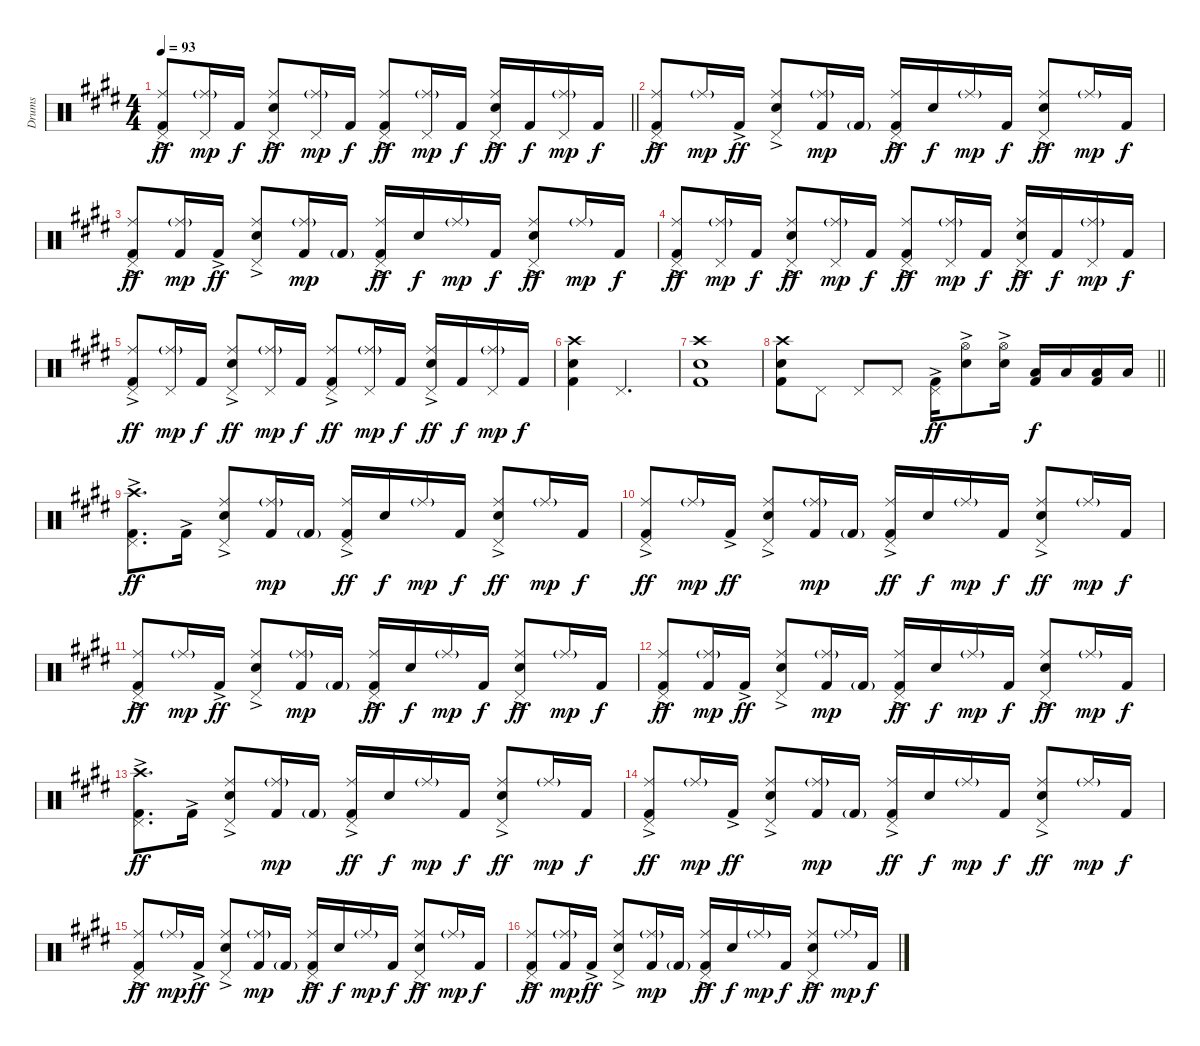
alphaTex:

\track ("Drums" "Drums") {instrument percussion}
\staff {score}
\articulation defaults
\ts (4 4)
\tempo 93
\clef neutral
\barLineRight lightlight
\ks e
("Pedal Hi-Hat (hit)" "Ride (middle)" "Kick (hit) 2"{ac}).8{dy ff} ("Pedal Hi-Hat (hit)" "Ride (middle)"{g}).16{dy mp} "Kick (hit) 2".16{dy f} ("Pedal Hi-Hat (hit)" "Ride (middle)" "Snare (hit) 2"{ac}).8{dy ff} ("Pedal Hi-Hat (hit)" "Ride (middle)"{g}).16{dy mp} "Kick (hit) 2".16{dy f} ("Pedal Hi-Hat (hit)" "Ride (middle)" "Kick (hit) 2"{ac}).8{dy ff} ("Pedal Hi-Hat (hit)" "Ride (middle)"{g}).16{dy mp} "Kick (hit) 2".16{dy f} ("Pedal Hi-Hat (hit)" "Ride (middle)" "Snare (hit) 2"{ac}).16{dy ff} "Kick (hit) 2".16{dy f} ("Pedal Hi-Hat (hit)" "Ride (middle)"{g}).16{dy mp} "Kick (hit) 2".16{dy f} |
("Pedal Hi-Hat (hit)" "Ride (middle)" "Kick (hit) 2"{ac}).8{dy ff} "Ride (middle)"{g}.16{dy mp} "Kick (hit) 2"{ac}.16{dy ff} ("Pedal Hi-Hat (hit)" "Ride (middle)" "Snare (hit) 2"{ac}).8 ("Ride (middle)"{g} "Kick (hit) 2").16{dy mp} "Kick (hit) 2"{g}.16 ("Pedal Hi-Hat (hit)" "Ride (middle)" "Kick (hit) 2"{ac}).16{dy ff} "Snare (hit) 2".16{dy f} "Ride (middle)"{g}.16{dy mp} "Kick (hit) 2".16{dy f} ("Pedal Hi-Hat (hit)" "Ride (middle)" "Snare (hit) 2"{ac}).8{dy ff} "Ride (middle)"{g}.16{dy mp} "Kick (hit) 2".16{dy f} |
("Pedal Hi-Hat (hit)" "Ride (middle)" "Kick (hit) 2"{ac}).8{dy ff} ("Ride (middle)"{g} "Kick (hit) 2").16{dy mp} "Kick (hit) 2"{ac}.16{dy ff} ("Pedal Hi-Hat (hit)" "Ride (middle)" "Snare (hit) 2"{ac}).8 ("Ride (middle)"{g} "Kick (hit) 2").16{dy mp} "Kick (hit) 2"{g}.16 ("Pedal Hi-Hat (hit)" "Ride (middle)" "Kick (hit) 2"{ac}).16{dy ff} "Snare (hit) 2".16{dy f} "Ride (middle)"{g}.16{dy mp} "Kick (hit) 2".16{dy f} ("Pedal Hi-Hat (hit)" "Ride (middle)" "Snare (hit) 2"{ac}).8{dy ff} "Ride (middle)"{g}.16{dy mp} "Kick (hit) 2".16{dy f} |
("Pedal Hi-Hat (hit)" "Ride (middle)" "Kick (hit) 2"{ac}).8{dy ff} ("Pedal Hi-Hat (hit)" "Ride (middle)"{g}).16{dy mp} "Kick (hit) 2".16{dy f} ("Pedal Hi-Hat (hit)" "Ride (middle)" "Snare (hit) 2"{ac}).8{dy ff} ("Pedal Hi-Hat (hit)" "Ride (middle)"{g}).16{dy mp} "Kick (hit) 2".16{dy f} ("Pedal Hi-Hat (hit)" "Ride (middle)" "Kick (hit) 2"{ac}).8{dy ff} ("Pedal Hi-Hat (hit)" "Ride (middle)"{g}).16{dy mp} "Kick (hit) 2".16{dy f} ("Pedal Hi-Hat (hit)" "Ride (middle)" "Snare (hit) 2"{ac}).16{dy ff} "Kick (hit) 2".16{dy f} ("Pedal Hi-Hat (hit)" "Ride (middle)"{g}).16{dy mp} "Kick (hit) 2".16{dy f} |
("Pedal Hi-Hat (hit)" "Ride (middle)" "Kick (hit) 2"{ac}).8{dy ff} ("Pedal Hi-Hat (hit)" "Ride (middle)"{g}).16{dy mp} "Kick (hit) 2".16{dy f} ("Pedal Hi-Hat (hit)" "Ride (middle)" "Snare (hit) 2"{ac}).8{dy ff} ("Pedal Hi-Hat (hit)" "Ride (middle)"{g}).16{dy mp} "Kick (hit) 2".16{dy f} ("Pedal Hi-Hat (hit)" "Ride (middle)" "Kick (hit) 2"{ac}).8{dy ff} ("Pedal Hi-Hat (hit)" "Ride (middle)"{g}).16{dy mp} "Kick (hit) 2".16{dy f} ("Pedal Hi-Hat (hit)" "Ride (middle)" "Snare (hit) 2"{ac}).16{dy ff} "Kick (hit) 2".16{dy f} ("Pedal Hi-Hat (hit)" "Ride (middle)"{g}).16{dy mp} "Kick (hit) 2".16{dy f} |
("Crash high (hit)" "Snare (hit) 2" "Kick (hit) 2").4 "Pedal Hi-Hat (hit)".2{d} |
("Crash high (hit)" "Snare (hit) 2" "Kick (hit) 2").1 |
\barLineRight lightlight
("Crash high (hit)" "Snare (hit) 2" "Kick (hit) 2").8 "Pedal Hi-Hat (hit)".8 "Pedal Hi-Hat (hit)".8 "Pedal Hi-Hat (hit)".8 ("Pedal Hi-Hat (hit)" "Kick (hit) 2"{ac}).16{dy ff} ("Hi-Hat (open)" "Snare (hit) 2"{ac}).8 ("Hi-Hat (open)" "Snare (hit) 2"{ac}).16 ("Low Tom (hit)" "Kick (hit) 2").16{dy f} "Low Tom (hit)".16 ("Low Floor Tom (hit)" "Kick (hit) 2").16 "Low Floor Tom (hit)".16 |
("Pedal Hi-Hat (hit)" "Crash high (hit)" "Kick (hit) 2"{ac}).8{d dy ff} "Kick (hit) 2"{ac}.16 ("Pedal Hi-Hat (hit)" "Ride (middle)" "Snare (hit) 2"{ac}).8 ("Ride (middle)"{g} "Kick (hit) 2").16{dy mp} "Kick (hit) 2"{g}.16 ("Pedal Hi-Hat (hit)" "Ride (middle)" "Kick (hit) 2"{ac}).16{dy ff} "Snare (hit) 2".16{dy f} "Ride (middle)"{g}.16{dy mp} "Kick (hit) 2".16{dy f} ("Pedal Hi-Hat (hit)" "Ride (middle)" "Snare (hit) 2"{ac}).8{dy ff} "Ride (middle)"{g}.16{dy mp} "Kick (hit) 2".16{dy f} |
("Pedal Hi-Hat (hit)" "Ride (middle)" "Kick (hit) 2"{ac}).8{dy ff} "Ride (middle)"{g}.16{dy mp} "Kick (hit) 2"{ac}.16{dy ff} ("Pedal Hi-Hat (hit)" "Ride (middle)" "Snare (hit) 2"{ac}).8 ("Ride (middle)"{g} "Kick (hit) 2").16{dy mp} "Kick (hit) 2"{g}.16 ("Pedal Hi-Hat (hit)" "Ride (middle)" "Kick (hit) 2"{ac}).16{dy ff} "Snare (hit) 2".16{dy f} "Ride (middle)"{g}.16{dy mp} "Kick (hit) 2".16{dy f} ("Pedal Hi-Hat (hit)" "Ride (middle)" "Snare (hit) 2"{ac}).8{dy ff} "Ride (middle)"{g}.16{dy mp} "Kick (hit) 2".16{dy f} |
("Pedal Hi-Hat (hit)" "Ride (middle)" "Kick (hit) 2"{ac}).8{dy ff} "Ride (middle)"{g}.16{dy mp} "Kick (hit) 2"{ac}.16{dy ff} ("Pedal Hi-Hat (hit)" "Ride (middle)" "Snare (hit) 2"{ac}).8 ("Ride (middle)"{g} "Kick (hit) 2").16{dy mp} "Kick (hit) 2"{g}.16 ("Pedal Hi-Hat (hit)" "Ride (middle)" "Kick (hit) 2"{ac}).16{dy ff} "Snare (hit) 2".16{dy f} "Ride (middle)"{g}.16{dy mp} "Kick (hit) 2".16{dy f} ("Pedal Hi-Hat (hit)" "Ride (middle)" "Snare (hit) 2"{ac}).8{dy ff} "Ride (middle)"{g}.16{dy mp} "Kick (hit) 2".16{dy f} |
("Pedal Hi-Hat (hit)" "Ride (middle)" "Kick (hit) 2"{ac}).8{dy ff} ("Ride (middle)"{g} "Kick (hit) 2").16{dy mp} "Kick (hit) 2"{ac}.16{dy ff} ("Pedal Hi-Hat (hit)" "Ride (middle)" "Snare (hit) 2"{ac}).8 ("Ride (middle)"{g} "Kick (hit) 2").16{dy mp} "Kick (hit) 2"{g}.16 ("Pedal Hi-Hat (hit)" "Ride (middle)" "Kick (hit) 2"{ac}).16{dy ff} "Snare (hit) 2".16{dy f} "Ride (middle)"{g}.16{dy mp} "Kick (hit) 2".16{dy f} ("Pedal Hi-Hat (hit)" "Ride (middle)" "Snare (hit) 2"{ac}).8{dy ff} "Ride (middle)"{g}.16{dy mp} "Kick (hit) 2".16{dy f} |
("Pedal Hi-Hat (hit)" "Crash high (hit)" "Kick (hit) 2"{ac}).8{d dy ff} "Kick (hit) 2"{ac}.16 ("Pedal Hi-Hat (hit)" "Ride (middle)" "Snare (hit) 2"{ac}).8 ("Ride (middle)"{g} "Kick (hit) 2").16{dy mp} "Kick (hit) 2"{g}.16 ("Pedal Hi-Hat (hit)" "Ride (middle)" "Kick (hit) 2"{ac}).16{dy ff} "Snare (hit) 2".16{dy f} "Ride (middle)"{g}.16{dy mp} "Kick (hit) 2".16{dy f} ("Pedal Hi-Hat (hit)" "Ride (middle)" "Snare (hit) 2"{ac}).8{dy ff} "Ride (middle)"{g}.16{dy mp} "Kick (hit) 2".16{dy f} |
("Pedal Hi-Hat (hit)" "Ride (middle)" "Kick (hit) 2"{ac}).8{dy ff} "Ride (middle)"{g}.16{dy mp} "Kick (hit) 2"{ac}.16{dy ff} ("Pedal Hi-Hat (hit)" "Ride (middle)" "Snare (hit) 2"{ac}).8 ("Ride (middle)"{g} "Kick (hit) 2").16{dy mp} "Kick (hit) 2"{g}.16 ("Pedal Hi-Hat (hit)" "Ride (middle)" "Kick (hit) 2"{ac}).16{dy ff} "Snare (hit) 2".16{dy f} "Ride (middle)"{g}.16{dy mp} "Kick (hit) 2".16{dy f} ("Pedal Hi-Hat (hit)" "Ride (middle)" "Snare (hit) 2"{ac}).8{dy ff} "Ride (middle)"{g}.16{dy mp} "Kick (hit) 2".16{dy f} |
("Pedal Hi-Hat (hit)" "Ride (middle)" "Kick (hit) 2"{ac}).8{dy ff} "Ride (middle)"{g}.16{dy mp} "Kick (hit) 2"{ac}.16{dy ff} ("Pedal Hi-Hat (hit)" "Ride (middle)" "Snare (hit) 2"{ac}).8 ("Ride (middle)"{g} "Kick (hit) 2").16{dy mp} "Kick (hit) 2"{g}.16 ("Pedal Hi-Hat (hit)" "Ride (middle)" "Kick (hit) 2"{ac}).16{dy ff} "Snare (hit) 2".16{dy f} "Ride (middle)"{g}.16{dy mp} "Kick (hit) 2".16{dy f} ("Pedal Hi-Hat (hit)" "Ride (middle)" "Snare (hit) 2"{ac}).8{dy ff} "Ride (middle)"{g}.16{dy mp} "Kick (hit) 2".16{dy f} |
("Pedal Hi-Hat (hit)" "Ride (middle)" "Kick (hit) 2"{ac}).8{dy ff} ("Ride (middle)"{g} "Kick (hit) 2").16{dy mp} "Kick (hit) 2"{ac}.16{dy ff} ("Pedal Hi-Hat (hit)" "Ride (middle)" "Snare (hit) 2"{ac}).8 ("Ride (middle)"{g} "Kick (hit) 2").16{dy mp} "Kick (hit) 2"{g}.16 ("Pedal Hi-Hat (hit)" "Ride (middle)" "Kick (hit) 2"{ac}).16{dy ff} "Snare (hit) 2".16{dy f} "Ride (middle)"{g}.16{dy mp} "Kick (hit) 2".16{dy f} ("Pedal Hi-Hat (hit)" "Ride (middle)" "Snare (hit) 2"{ac}).8{dy ff} "Ride (middle)"{g}.16{dy mp} "Kick (hit) 2".16{dy f}
